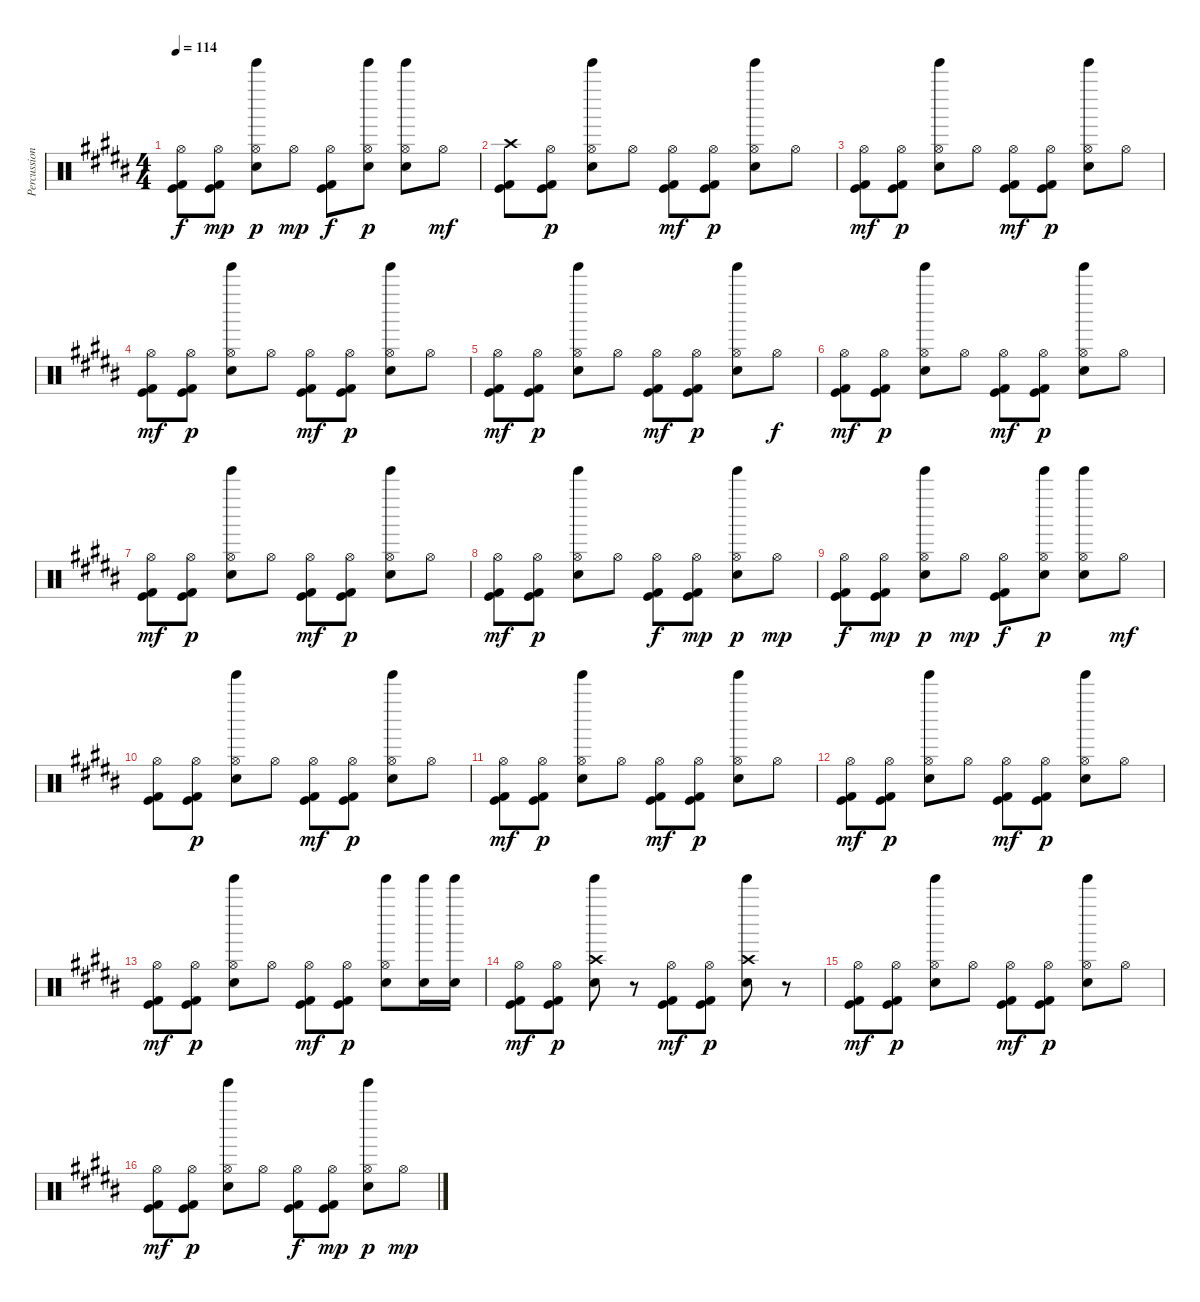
\track ("Percussion" "Percussion") {instrument percussion}
\staff {score}
\articulation defaults
\ts (4 4)
\tempo 114
\clef neutral
\ks g#minor
("Hi-Hat (open)" "Kick (hit)" "Kick (hit) 2").8{dy f} ("Hi-Hat (open)" "Kick (hit)" "Kick (hit) 2").8{dy mp} ("Hi-Hat (open)" "Electric Snare (hit)" "Tinkle Bell (hit)").8{dy p} "Hi-Hat (open)".8{dy mp} ("Hi-Hat (open)" "Kick (hit)" "Kick (hit) 2").8{dy f} ("Hi-Hat (open)" "Electric Snare (hit)" "Tinkle Bell (hit)").8{dy p} ("Hi-Hat (open)" "Electric Snare (hit)" "Tinkle Bell (hit)").8 "Hi-Hat (open)".8{dy mf} |
("Crash high (hit)" "Kick (hit)" "Kick (hit) 2").8 ("Hi-Hat (open)" "Kick (hit)" "Kick (hit) 2").8{dy p} ("Hi-Hat (open)" "Electric Snare (hit)" "Tinkle Bell (hit)").8 "Hi-Hat (open)".8 ("Hi-Hat (open)" "Kick (hit)" "Kick (hit) 2").8{dy mf} ("Hi-Hat (open)" "Kick (hit)" "Kick (hit) 2").8{dy p} ("Hi-Hat (open)" "Electric Snare (hit)" "Tinkle Bell (hit)").8 "Hi-Hat (open)".8 |
("Hi-Hat (open)" "Kick (hit)" "Kick (hit) 2").8{dy mf} ("Hi-Hat (open)" "Kick (hit)" "Kick (hit) 2").8{dy p} ("Hi-Hat (open)" "Electric Snare (hit)" "Tinkle Bell (hit)").8 "Hi-Hat (open)".8 ("Hi-Hat (open)" "Kick (hit)" "Kick (hit) 2").8{dy mf} ("Hi-Hat (open)" "Kick (hit)" "Kick (hit) 2").8{dy p} ("Hi-Hat (open)" "Electric Snare (hit)" "Tinkle Bell (hit)").8 "Hi-Hat (open)".8 |
("Hi-Hat (open)" "Kick (hit)" "Kick (hit) 2").8{dy mf} ("Hi-Hat (open)" "Kick (hit)" "Kick (hit) 2").8{dy p} ("Hi-Hat (open)" "Electric Snare (hit)" "Tinkle Bell (hit)").8 "Hi-Hat (open)".8 ("Hi-Hat (open)" "Kick (hit)" "Kick (hit) 2").8{dy mf} ("Hi-Hat (open)" "Kick (hit)" "Kick (hit) 2").8{dy p} ("Hi-Hat (open)" "Electric Snare (hit)" "Tinkle Bell (hit)").8 "Hi-Hat (open)".8 |
("Hi-Hat (open)" "Kick (hit)" "Kick (hit) 2").8{dy mf} ("Hi-Hat (open)" "Kick (hit)" "Kick (hit) 2").8{dy p} ("Hi-Hat (open)" "Electric Snare (hit)" "Tinkle Bell (hit)").8 "Hi-Hat (open)".8 ("Hi-Hat (open)" "Kick (hit)" "Kick (hit) 2").8{dy mf} ("Hi-Hat (open)" "Kick (hit)" "Kick (hit) 2").8{dy p} ("Hi-Hat (open)" "Electric Snare (hit)" "Tinkle Bell (hit)").8 "Hi-Hat (open)".8{dy f} |
("Hi-Hat (open)" "Kick (hit)" "Kick (hit) 2").8{dy mf} ("Hi-Hat (open)" "Kick (hit)" "Kick (hit) 2").8{dy p} ("Hi-Hat (open)" "Electric Snare (hit)" "Tinkle Bell (hit)").8 "Hi-Hat (open)".8 ("Hi-Hat (open)" "Kick (hit)" "Kick (hit) 2").8{dy mf} ("Hi-Hat (open)" "Kick (hit)" "Kick (hit) 2").8{dy p} ("Hi-Hat (open)" "Electric Snare (hit)" "Tinkle Bell (hit)").8 "Hi-Hat (open)".8 |
("Hi-Hat (open)" "Kick (hit)" "Kick (hit) 2").8{dy mf} ("Hi-Hat (open)" "Kick (hit)" "Kick (hit) 2").8{dy p} ("Hi-Hat (open)" "Electric Snare (hit)" "Tinkle Bell (hit)").8 "Hi-Hat (open)".8 ("Hi-Hat (open)" "Kick (hit)" "Kick (hit) 2").8{dy mf} ("Hi-Hat (open)" "Kick (hit)" "Kick (hit) 2").8{dy p} ("Hi-Hat (open)" "Electric Snare (hit)" "Tinkle Bell (hit)").8 "Hi-Hat (open)".8 |
("Hi-Hat (open)" "Kick (hit)" "Kick (hit) 2").8{dy mf} ("Hi-Hat (open)" "Kick (hit)" "Kick (hit) 2").8{dy p} ("Hi-Hat (open)" "Electric Snare (hit)" "Tinkle Bell (hit)").8 "Hi-Hat (open)".8 ("Hi-Hat (open)" "Kick (hit)" "Kick (hit) 2").8{dy f} ("Hi-Hat (open)" "Kick (hit)" "Kick (hit) 2").8{dy mp} ("Hi-Hat (open)" "Electric Snare (hit)" "Tinkle Bell (hit)").8{dy p} "Hi-Hat (open)".8{dy mp} |
("Hi-Hat (open)" "Kick (hit)" "Kick (hit) 2").8{dy f} ("Hi-Hat (open)" "Kick (hit)" "Kick (hit) 2").8{dy mp} ("Hi-Hat (open)" "Electric Snare (hit)" "Tinkle Bell (hit)").8{dy p} "Hi-Hat (open)".8{dy mp} ("Hi-Hat (open)" "Kick (hit)" "Kick (hit) 2").8{dy f} ("Hi-Hat (open)" "Electric Snare (hit)" "Tinkle Bell (hit)").8{dy p} ("Hi-Hat (open)" "Electric Snare (hit)" "Tinkle Bell (hit)").8 "Hi-Hat (open)".8{dy mf} |
("Hi-Hat (open)" "Kick (hit)" "Kick (hit) 2").8 ("Hi-Hat (open)" "Kick (hit)" "Kick (hit) 2").8{dy p} ("Hi-Hat (open)" "Electric Snare (hit)" "Tinkle Bell (hit)").8 "Hi-Hat (open)".8 ("Hi-Hat (open)" "Kick (hit)" "Kick (hit) 2").8{dy mf} ("Hi-Hat (open)" "Kick (hit)" "Kick (hit) 2").8{dy p} ("Hi-Hat (open)" "Electric Snare (hit)" "Tinkle Bell (hit)").8 "Hi-Hat (open)".8 |
("Hi-Hat (open)" "Kick (hit)" "Kick (hit) 2").8{dy mf} ("Hi-Hat (open)" "Kick (hit)" "Kick (hit) 2").8{dy p} ("Hi-Hat (open)" "Electric Snare (hit)" "Tinkle Bell (hit)").8 "Hi-Hat (open)".8 ("Hi-Hat (open)" "Kick (hit)" "Kick (hit) 2").8{dy mf} ("Hi-Hat (open)" "Kick (hit)" "Kick (hit) 2").8{dy p} ("Hi-Hat (open)" "Electric Snare (hit)" "Tinkle Bell (hit)").8 "Hi-Hat (open)".8 |
("Hi-Hat (open)" "Kick (hit)" "Kick (hit) 2").8{dy mf} ("Hi-Hat (open)" "Kick (hit)" "Kick (hit) 2").8{dy p} ("Hi-Hat (open)" "Electric Snare (hit)" "Tinkle Bell (hit)").8 "Hi-Hat (open)".8 ("Hi-Hat (open)" "Kick (hit)" "Kick (hit) 2").8{dy mf} ("Hi-Hat (open)" "Kick (hit)" "Kick (hit) 2").8{dy p} ("Hi-Hat (open)" "Electric Snare (hit)" "Tinkle Bell (hit)").8 "Hi-Hat (open)".8 |
("Hi-Hat (open)" "Kick (hit)" "Kick (hit) 2").8{dy mf} ("Hi-Hat (open)" "Kick (hit)" "Kick (hit) 2").8{dy p} ("Hi-Hat (open)" "Electric Snare (hit)" "Tinkle Bell (hit)").8 "Hi-Hat (open)".8 ("Hi-Hat (open)" "Kick (hit)" "Kick (hit) 2").8{dy mf} ("Hi-Hat (open)" "Kick (hit)" "Kick (hit) 2").8{dy p} ("Hi-Hat (open)" "Electric Snare (hit)" "Tinkle Bell (hit)").8 ("Electric Snare (hit)" "Tinkle Bell (hit)").16 ("Electric Snare (hit)" "Tinkle Bell (hit)").16 |
("Hi-Hat (open)" "Kick (hit)" "Kick (hit) 2").8{dy mf} ("Hi-Hat (open)" "Kick (hit)" "Kick (hit) 2").8{dy p} ("Crash high (hit)" "Electric Snare (hit)" "Tinkle Bell (hit)").8 r.8 ("Hi-Hat (open)" "Kick (hit)" "Kick (hit) 2").8{dy mf} ("Hi-Hat (open)" "Kick (hit)" "Kick (hit) 2").8{dy p} ("Crash high (hit)" "Electric Snare (hit)" "Tinkle Bell (hit)").8 r.8 |
("Hi-Hat (open)" "Kick (hit)" "Kick (hit) 2").8{dy mf} ("Hi-Hat (open)" "Kick (hit)" "Kick (hit) 2").8{dy p} ("Hi-Hat (open)" "Electric Snare (hit)" "Tinkle Bell (hit)").8 "Hi-Hat (open)".8 ("Hi-Hat (open)" "Kick (hit)" "Kick (hit) 2").8{dy mf} ("Hi-Hat (open)" "Kick (hit)" "Kick (hit) 2").8{dy p} ("Hi-Hat (open)" "Electric Snare (hit)" "Tinkle Bell (hit)").8 "Hi-Hat (open)".8 |
("Hi-Hat (open)" "Kick (hit)" "Kick (hit) 2").8{dy mf} ("Hi-Hat (open)" "Kick (hit)" "Kick (hit) 2").8{dy p} ("Hi-Hat (open)" "Electric Snare (hit)" "Tinkle Bell (hit)").8 "Hi-Hat (open)".8 ("Hi-Hat (open)" "Kick (hit)" "Kick (hit) 2").8{dy f} ("Hi-Hat (open)" "Kick (hit)" "Kick (hit) 2").8{dy mp} ("Hi-Hat (open)" "Electric Snare (hit)" "Tinkle Bell (hit)").8{dy p} "Hi-Hat (open)".8{dy mp}
